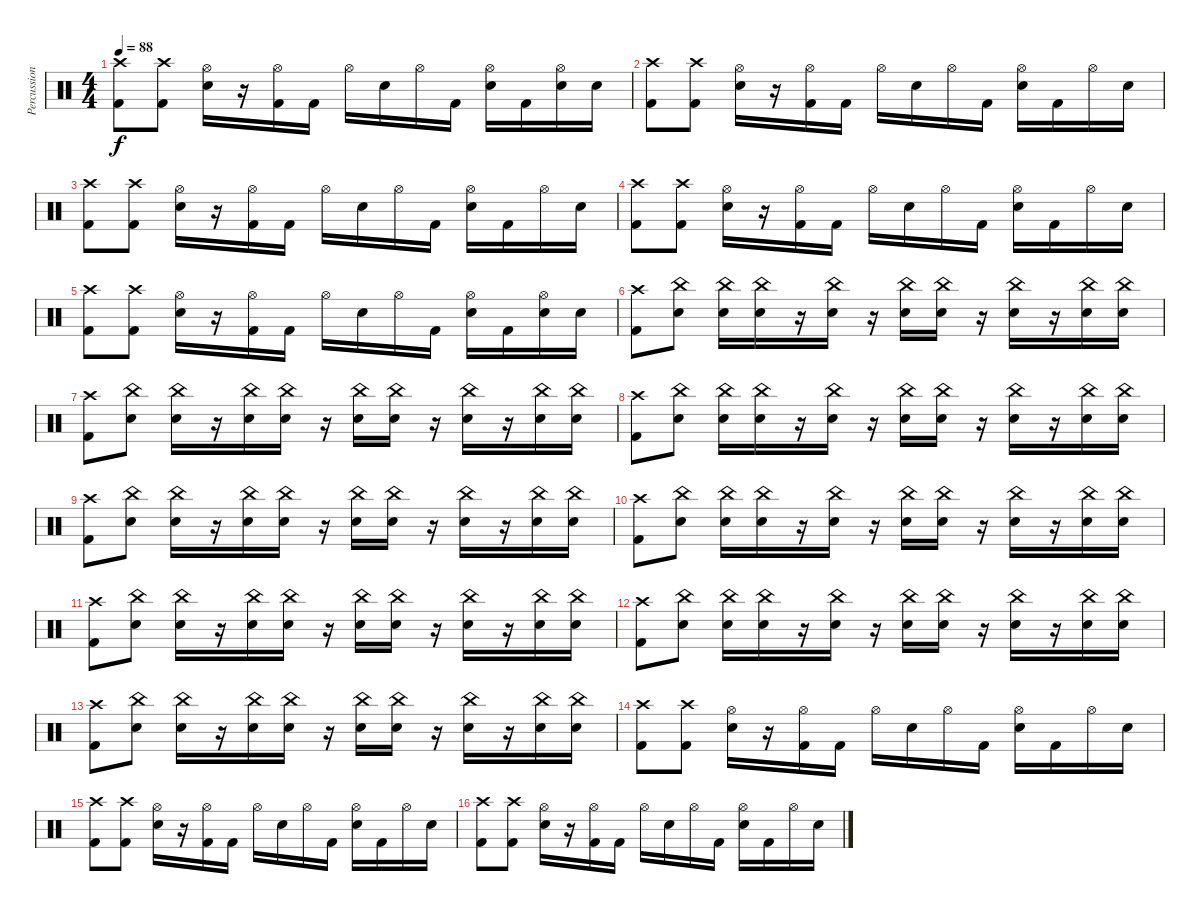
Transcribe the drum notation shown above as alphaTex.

\track ("Percussion" "Percussion") {instrument percussion}
\staff {score}
\articulation defaults
\ts (4 4)
\tempo 88
\clef neutral
\ks c
("Crash high (hit)" "Kick (hit) 2").8{dy f} ("Crash high (hit)" "Kick (hit) 2").8 ("Hi-Hat (open)" "Electric Snare (hit)").16 r.16 ("Hi-Hat (open)" "Kick (hit) 2").16 "Kick (hit) 2".16 "Hi-Hat (open)".16 "Electric Snare (hit)".16 "Hi-Hat (open)".16 "Kick (hit) 2".16 ("Hi-Hat (open)" "Electric Snare (hit)").16 "Kick (hit) 2".16 ("Hi-Hat (open)" "Electric Snare (hit)").16 "Electric Snare (hit)".16 |
("Crash high (hit)" "Kick (hit) 2").8 ("Crash high (hit)" "Kick (hit) 2").8 ("Hi-Hat (open)" "Electric Snare (hit)").16 r.16 ("Hi-Hat (open)" "Kick (hit) 2").16 "Kick (hit) 2".16 "Hi-Hat (open)".16 "Electric Snare (hit)".16 "Hi-Hat (open)".16 "Kick (hit) 2".16 ("Hi-Hat (open)" "Electric Snare (hit)").16 "Kick (hit) 2".16 "Hi-Hat (open)".16 "Electric Snare (hit)".16 |
("Crash high (hit)" "Kick (hit) 2").8 ("Crash high (hit)" "Kick (hit) 2").8 ("Hi-Hat (open)" "Electric Snare (hit)").16 r.16 ("Hi-Hat (open)" "Kick (hit) 2").16 "Kick (hit) 2".16 "Hi-Hat (open)".16 "Electric Snare (hit)".16 "Hi-Hat (open)".16 "Kick (hit) 2".16 ("Hi-Hat (open)" "Electric Snare (hit)").16 "Kick (hit) 2".16 "Hi-Hat (open)".16 "Electric Snare (hit)".16 |
("Crash high (hit)" "Kick (hit) 2").8 ("Crash high (hit)" "Kick (hit) 2").8 ("Hi-Hat (open)" "Electric Snare (hit)").16 r.16 ("Hi-Hat (open)" "Kick (hit) 2").16 "Kick (hit) 2".16 "Hi-Hat (open)".16 "Electric Snare (hit)".16 "Hi-Hat (open)".16 "Kick (hit) 2".16 ("Hi-Hat (open)" "Electric Snare (hit)").16 "Kick (hit) 2".16 "Hi-Hat (open)".16 "Electric Snare (hit)".16 |
("Crash high (hit)" "Kick (hit) 2").8 ("Crash high (hit)" "Kick (hit) 2").8 ("Hi-Hat (open)" "Electric Snare (hit)").16 r.16 ("Hi-Hat (open)" "Kick (hit) 2").16 "Kick (hit) 2".16 "Hi-Hat (open)".16 "Electric Snare (hit)".16 "Hi-Hat (open)".16 "Kick (hit) 2".16 ("Hi-Hat (open)" "Electric Snare (hit)").16 "Kick (hit) 2".16 ("Hi-Hat (open)" "Electric Snare (hit)").16 "Electric Snare (hit)".16 |
("Crash high (hit)" "Kick (hit) 2").8 ("China (hit)" "Electric Snare (hit)").8 ("China (hit)" "Electric Snare (hit)").16 ("China (hit)" "Electric Snare (hit)").16 r.16 ("China (hit)" "Electric Snare (hit)").16 r.16 ("China (hit)" "Electric Snare (hit)").16 ("China (hit)" "Electric Snare (hit)").16 r.16 ("China (hit)" "Electric Snare (hit)").16 r.16 ("China (hit)" "Electric Snare (hit)").16 ("China (hit)" "Electric Snare (hit)").16 |
("Crash high (hit)" "Kick (hit) 2").8 ("China (hit)" "Electric Snare (hit)").8 ("China (hit)" "Electric Snare (hit)").16 r.16 ("China (hit)" "Electric Snare (hit)").16 ("China (hit)" "Electric Snare (hit)").16 r.16 ("China (hit)" "Electric Snare (hit)").16 ("China (hit)" "Electric Snare (hit)").16 r.16 ("China (hit)" "Electric Snare (hit)").16 r.16 ("China (hit)" "Electric Snare (hit)").16 ("China (hit)" "Electric Snare (hit)").16 |
("Crash high (hit)" "Kick (hit) 2").8 ("China (hit)" "Electric Snare (hit)").8 ("China (hit)" "Electric Snare (hit)").16 ("China (hit)" "Electric Snare (hit)").16 r.16 ("China (hit)" "Electric Snare (hit)").16 r.16 ("China (hit)" "Electric Snare (hit)").16 ("China (hit)" "Electric Snare (hit)").16 r.16 ("China (hit)" "Electric Snare (hit)").16 r.16 ("China (hit)" "Electric Snare (hit)").16 ("China (hit)" "Electric Snare (hit)").16 |
("Crash high (hit)" "Kick (hit) 2").8 ("China (hit)" "Electric Snare (hit)").8 ("China (hit)" "Electric Snare (hit)").16 r.16 ("China (hit)" "Electric Snare (hit)").16 ("China (hit)" "Electric Snare (hit)").16 r.16 ("China (hit)" "Electric Snare (hit)").16 ("China (hit)" "Electric Snare (hit)").16 r.16 ("China (hit)" "Electric Snare (hit)").16 r.16 ("China (hit)" "Electric Snare (hit)").16 ("China (hit)" "Electric Snare (hit)").16 |
("Crash high (hit)" "Kick (hit) 2").8 ("China (hit)" "Electric Snare (hit)").8 ("China (hit)" "Electric Snare (hit)").16 ("China (hit)" "Electric Snare (hit)").16 r.16 ("China (hit)" "Electric Snare (hit)").16 r.16 ("China (hit)" "Electric Snare (hit)").16 ("China (hit)" "Electric Snare (hit)").16 r.16 ("China (hit)" "Electric Snare (hit)").16 r.16 ("China (hit)" "Electric Snare (hit)").16 ("China (hit)" "Electric Snare (hit)").16 |
("Crash high (hit)" "Kick (hit) 2").8 ("China (hit)" "Electric Snare (hit)").8 ("China (hit)" "Electric Snare (hit)").16 r.16 ("China (hit)" "Electric Snare (hit)").16 ("China (hit)" "Electric Snare (hit)").16 r.16 ("China (hit)" "Electric Snare (hit)").16 ("China (hit)" "Electric Snare (hit)").16 r.16 ("China (hit)" "Electric Snare (hit)").16 r.16 ("China (hit)" "Electric Snare (hit)").16 ("China (hit)" "Electric Snare (hit)").16 |
("Crash high (hit)" "Kick (hit) 2").8 ("China (hit)" "Electric Snare (hit)").8 ("China (hit)" "Electric Snare (hit)").16 ("China (hit)" "Electric Snare (hit)").16 r.16 ("China (hit)" "Electric Snare (hit)").16 r.16 ("China (hit)" "Electric Snare (hit)").16 ("China (hit)" "Electric Snare (hit)").16 r.16 ("China (hit)" "Electric Snare (hit)").16 r.16 ("China (hit)" "Electric Snare (hit)").16 ("China (hit)" "Electric Snare (hit)").16 |
("Crash high (hit)" "Kick (hit) 2").8 ("China (hit)" "Electric Snare (hit)").8 ("China (hit)" "Electric Snare (hit)").16 r.16 ("China (hit)" "Electric Snare (hit)").16 ("China (hit)" "Electric Snare (hit)").16 r.16 ("China (hit)" "Electric Snare (hit)").16 ("China (hit)" "Electric Snare (hit)").16 r.16 ("China (hit)" "Electric Snare (hit)").16 r.16 ("China (hit)" "Electric Snare (hit)").16 ("China (hit)" "Electric Snare (hit)").16 |
("Crash high (hit)" "Kick (hit) 2").8 ("Crash high (hit)" "Kick (hit) 2").8 ("Hi-Hat (open)" "Electric Snare (hit)").16 r.16 ("Hi-Hat (open)" "Kick (hit) 2").16 "Kick (hit) 2".16 "Hi-Hat (open)".16 "Electric Snare (hit)".16 "Hi-Hat (open)".16 "Kick (hit) 2".16 ("Hi-Hat (open)" "Electric Snare (hit)").16 "Kick (hit) 2".16 "Hi-Hat (open)".16 "Electric Snare (hit)".16 |
("Crash high (hit)" "Kick (hit) 2").8 ("Crash high (hit)" "Kick (hit) 2").8 ("Hi-Hat (open)" "Electric Snare (hit)").16 r.16 ("Hi-Hat (open)" "Kick (hit) 2").16 "Kick (hit) 2".16 "Hi-Hat (open)".16 "Electric Snare (hit)".16 "Hi-Hat (open)".16 "Kick (hit) 2".16 ("Hi-Hat (open)" "Electric Snare (hit)").16 "Kick (hit) 2".16 "Hi-Hat (open)".16 "Electric Snare (hit)".16 |
("Crash high (hit)" "Kick (hit) 2").8 ("Crash high (hit)" "Kick (hit) 2").8 ("Hi-Hat (open)" "Electric Snare (hit)").16 r.16 ("Hi-Hat (open)" "Kick (hit) 2").16 "Kick (hit) 2".16 "Hi-Hat (open)".16 "Electric Snare (hit)".16 "Hi-Hat (open)".16 "Kick (hit) 2".16 ("Hi-Hat (open)" "Electric Snare (hit)").16 "Kick (hit) 2".16 "Hi-Hat (open)".16 "Electric Snare (hit)".16
